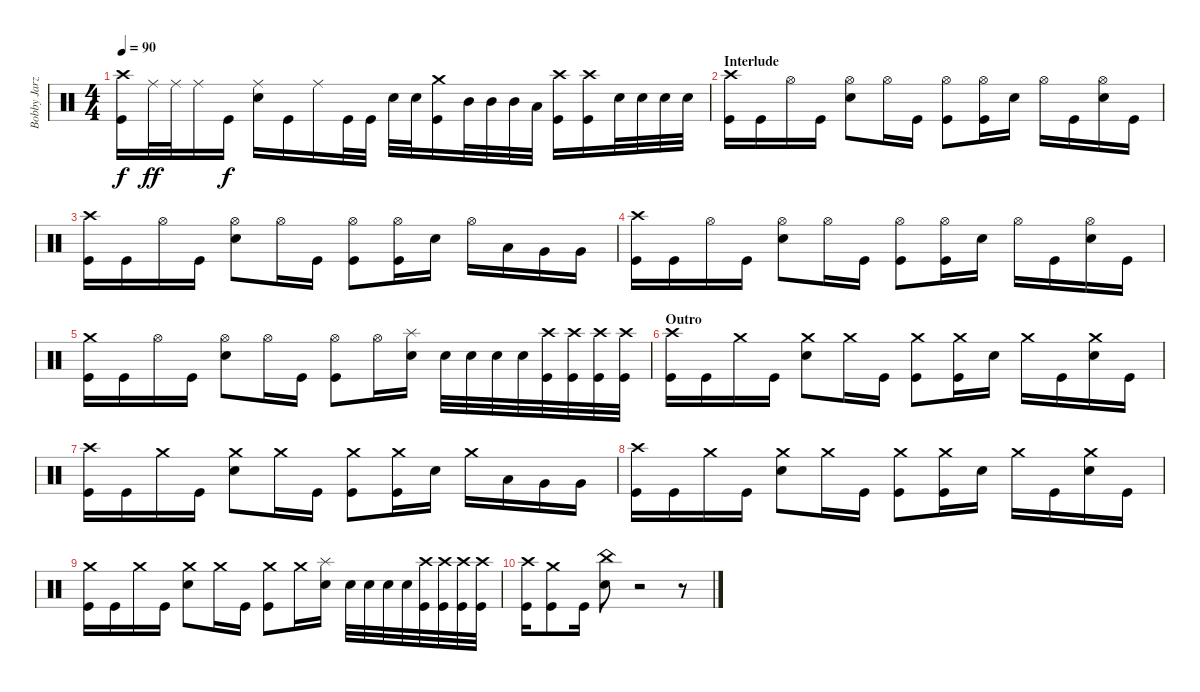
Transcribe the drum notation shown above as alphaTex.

\track ("Bobby Jarzombek" "Bobby Jarz") {instrument percussion}
\staff {score}
\articulation defaults
\ts (4 4)
\tempo 90
\clef neutral
\ks c
("Crash high (hit)" "Kick (hit)").16{dy f} "Ride (middle)".32{dy ff} "Ride (middle)".32 "Ride (middle)".16 "Kick (hit)".16{dy f} ("Ride (middle)" "Electric Snare (hit)").16 "Kick (hit)".16 "Ride (middle)".16 "Kick (hit)".32 "Kick (hit)".32 "Electric Snare (hit)".32 "Electric Snare (hit)".32 ("Crash medium (hit)" "Kick (hit)").16 "Mid Tom (hit)".32 "Mid Tom (hit)".32 "Mid Tom (hit)".32 "Low Tom (hit)".32 ("Crash high (hit)" "Kick (hit)").16 ("Crash high (hit)" "Kick (hit)").16 "Electric Snare (hit)".32 "Electric Snare (hit)".32 "Electric Snare (hit)".32 "Electric Snare (hit)".32 |
\section ("" "Interlude")
("Crash high (hit)" "Kick (hit)").16 "Kick (hit)".16 "Hi-Hat (open)".16 "Kick (hit)".16 ("Hi-Hat (open)" "Electric Snare (hit)").8 "Hi-Hat (open)".16 "Kick (hit)".16 ("Hi-Hat (open)" "Kick (hit)").8 ("Hi-Hat (open)" "Kick (hit)").16 "Electric Snare (hit)".16 "Hi-Hat (open)".16 "Kick (hit)".16 ("Hi-Hat (open)" "Electric Snare (hit)").16 "Kick (hit)".16 |
("Crash high (hit)" "Kick (hit)").16 "Kick (hit)".16 "Hi-Hat (open)".16 "Kick (hit)".16 ("Hi-Hat (open)" "Electric Snare (hit)").8 "Hi-Hat (open)".16 "Kick (hit)".16 ("Hi-Hat (open)" "Kick (hit)").8 ("Hi-Hat (open)" "Kick (hit)").16 "Electric Snare (hit)".16 "Hi-Hat (open)".16 "Low Tom (hit)".16 "Very Low Tom (hit)".16 "Very Low Tom (hit)".16 |
("Crash high (hit)" "Kick (hit)").16 "Kick (hit)".16 "Hi-Hat (open)".16 "Kick (hit)".16 ("Hi-Hat (open)" "Electric Snare (hit)").8 "Hi-Hat (open)".16 "Kick (hit)".16 ("Hi-Hat (open)" "Kick (hit)").8 ("Hi-Hat (open)" "Kick (hit)").16 "Electric Snare (hit)".16 "Hi-Hat (open)".16 "Kick (hit)".16 ("Hi-Hat (open)" "Electric Snare (hit)").16 "Kick (hit)".16 |
("Crash medium (hit)" "Kick (hit)").16 "Kick (hit)".16 "Hi-Hat (open)".16 "Kick (hit)".16 ("Hi-Hat (open)" "Electric Snare (hit)").8 "Hi-Hat (open)".16 "Kick (hit)".16 ("Hi-Hat (open)" "Kick (hit)").8 "Hi-Hat (open)".16 ("Splash (hit)" "Electric Snare (hit)").16 "Electric Snare (hit)".32 "Electric Snare (hit)".32 "Electric Snare (hit)".32 "Electric Snare (hit)".32 ("Crash high (hit)" "Kick (hit)").32 ("Crash high (hit)" "Kick (hit)").32 ("Crash high (hit)" "Kick (hit)").32 ("Crash high (hit)" "Kick (hit)").32 |
\section ("" "Outro")
("Crash high (hit)" "Kick (hit)").16 "Kick (hit)".16 "Crash medium (hit)".16 "Kick (hit)".16 ("Crash medium (hit)" "Electric Snare (hit)").8 "Crash medium (hit)".16 "Kick (hit)".16 ("Crash medium (hit)" "Kick (hit)").8 ("Crash medium (hit)" "Kick (hit)").16 "Electric Snare (hit)".16 "Crash medium (hit)".16 "Kick (hit)".16 ("Crash medium (hit)" "Electric Snare (hit)").16 "Kick (hit)".16 |
("Crash high (hit)" "Kick (hit)").16 "Kick (hit)".16 "Crash medium (hit)".16 "Kick (hit)".16 ("Crash medium (hit)" "Electric Snare (hit)").8 "Crash medium (hit)".16 "Kick (hit)".16 ("Crash medium (hit)" "Kick (hit)").8 ("Crash medium (hit)" "Kick (hit)").16 "Electric Snare (hit)".16 "Crash medium (hit)".16 "Low Tom (hit)".16 "Very Low Tom (hit)".16 "Very Low Tom (hit)".16 |
("Crash high (hit)" "Kick (hit)").16 "Kick (hit)".16 "Crash medium (hit)".16 "Kick (hit)".16 ("Crash medium (hit)" "Electric Snare (hit)").8 "Crash medium (hit)".16 "Kick (hit)".16 ("Crash medium (hit)" "Kick (hit)").8 ("Crash medium (hit)" "Kick (hit)").16 "Electric Snare (hit)".16 "Crash medium (hit)".16 "Kick (hit)".16 ("Crash medium (hit)" "Electric Snare (hit)").16 "Kick (hit)".16 |
("Crash medium (hit)" "Kick (hit)").16 "Kick (hit)".16 "Crash medium (hit)".16 "Kick (hit)".16 ("Crash medium (hit)" "Electric Snare (hit)").8 "Crash medium (hit)".16 "Kick (hit)".16 ("Crash medium (hit)" "Kick (hit)").8 "Crash medium (hit)".16 ("Splash (hit)" "Electric Snare (hit)").16 "Electric Snare (hit)".32 "Electric Snare (hit)".32 "Electric Snare (hit)".32 "Electric Snare (hit)".32 ("Crash high (hit)" "Kick (hit)").32 ("Crash high (hit)" "Kick (hit)").32 ("Crash high (hit)" "Kick (hit)").32 ("Crash high (hit)" "Kick (hit)").32 |
("Crash high (hit)" "Kick (hit)").16 ("Crash medium (hit)" "Kick (hit)").8 "Kick (hit)".16 ("China (hit)" "Electric Snare (hit)").8 r.2 r.8
